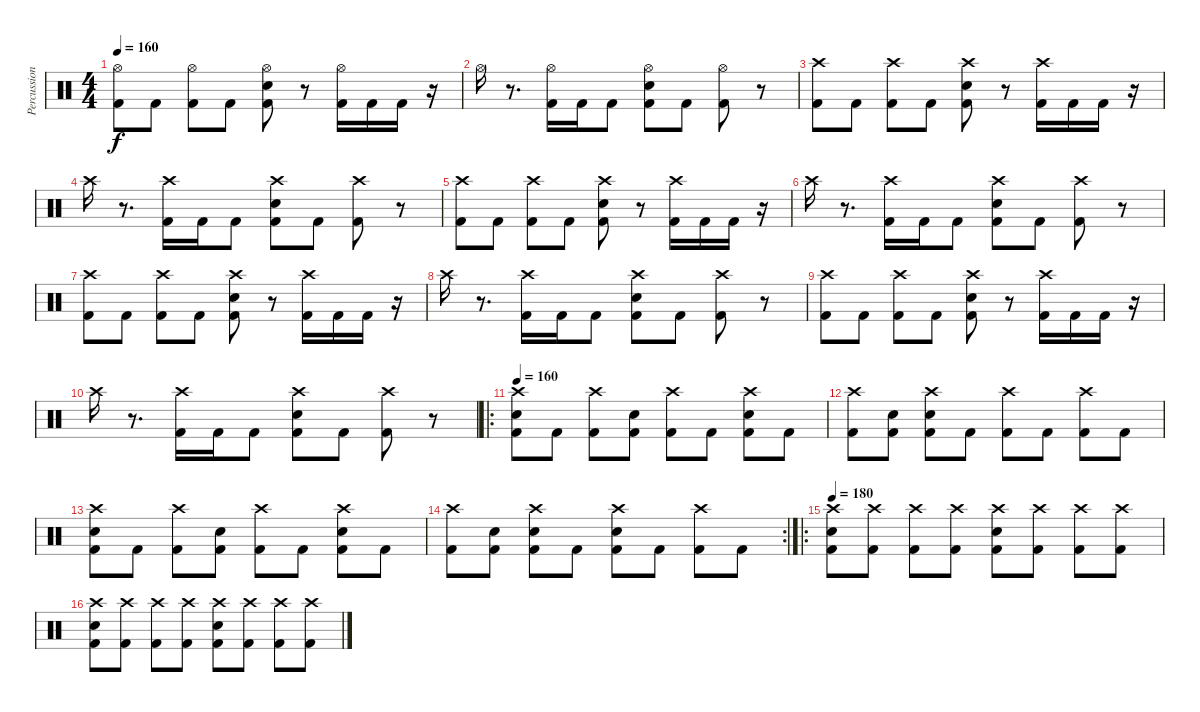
\track ("Percussion" "Percussion") {instrument percussion}
\staff {score}
\articulation defaults
\ts (4 4)
\tempo 160
\clef neutral
\ks c
("Hi-Hat (open)" "Kick (hit) 2").8{dy f} "Kick (hit) 2".8 ("Hi-Hat (open)" "Kick (hit) 2").8 "Kick (hit) 2".8 ("Hi-Hat (open)" "Snare (hit) 2" "Kick (hit) 2").8 r.8 ("Hi-Hat (open)" "Kick (hit) 2").16 "Kick (hit) 2".16 "Kick (hit) 2".16 r.16 |
"Hi-Hat (open)".16 r.8{d} ("Hi-Hat (open)" "Kick (hit) 2").16 "Kick (hit) 2".16 "Kick (hit) 2".8 ("Hi-Hat (open)" "Snare (hit) 2" "Kick (hit) 2").8 "Kick (hit) 2".8 ("Hi-Hat (open)" "Kick (hit) 2").8 r.8 |
("Crash high (hit)" "Kick (hit) 2").8 "Kick (hit) 2".8 ("Crash high (hit)" "Kick (hit) 2").8 "Kick (hit) 2".8 ("Crash high (hit)" "Snare (hit) 2" "Kick (hit) 2").8 r.8 ("Crash high (hit)" "Kick (hit) 2").16 "Kick (hit) 2".16 "Kick (hit) 2".16 r.16 |
"Crash high (hit)".16 r.8{d} ("Crash high (hit)" "Kick (hit) 2").16 "Kick (hit) 2".16 "Kick (hit) 2".8 ("Crash high (hit)" "Snare (hit) 2" "Kick (hit) 2").8 "Kick (hit) 2".8 ("Crash high (hit)" "Kick (hit) 2").8 r.8 |
("Crash high (hit)" "Kick (hit) 2").8 "Kick (hit) 2".8 ("Crash high (hit)" "Kick (hit) 2").8 "Kick (hit) 2".8 ("Crash high (hit)" "Snare (hit) 2" "Kick (hit) 2").8 r.8 ("Crash high (hit)" "Kick (hit) 2").16 "Kick (hit) 2".16 "Kick (hit) 2".16 r.16 |
"Crash high (hit)".16 r.8{d} ("Crash high (hit)" "Kick (hit) 2").16 "Kick (hit) 2".16 "Kick (hit) 2".8 ("Crash high (hit)" "Snare (hit) 2" "Kick (hit) 2").8 "Kick (hit) 2".8 ("Crash high (hit)" "Kick (hit) 2").8 r.8 |
("Crash high (hit)" "Kick (hit) 2").8 "Kick (hit) 2".8 ("Crash high (hit)" "Kick (hit) 2").8 "Kick (hit) 2".8 ("Crash high (hit)" "Snare (hit) 2" "Kick (hit) 2").8 r.8 ("Crash high (hit)" "Kick (hit) 2").16 "Kick (hit) 2".16 "Kick (hit) 2".16 r.16 |
"Crash high (hit)".16 r.8{d} ("Crash high (hit)" "Kick (hit) 2").16 "Kick (hit) 2".16 "Kick (hit) 2".8 ("Crash high (hit)" "Snare (hit) 2" "Kick (hit) 2").8 "Kick (hit) 2".8 ("Crash high (hit)" "Kick (hit) 2").8 r.8 |
("Crash high (hit)" "Kick (hit) 2").8 "Kick (hit) 2".8 ("Crash high (hit)" "Kick (hit) 2").8 "Kick (hit) 2".8 ("Crash high (hit)" "Snare (hit) 2" "Kick (hit) 2").8 r.8 ("Crash high (hit)" "Kick (hit) 2").16 "Kick (hit) 2".16 "Kick (hit) 2".16 r.16 |
"Crash high (hit)".16 r.8{d} ("Crash high (hit)" "Kick (hit) 2").16 "Kick (hit) 2".16 "Kick (hit) 2".8 ("Crash high (hit)" "Snare (hit) 2" "Kick (hit) 2").8 "Kick (hit) 2".8 ("Crash high (hit)" "Kick (hit) 2").8 r.8 |
\ro
\tempo 160
("Crash high (hit)" "Snare (hit) 2" "Kick (hit) 2").8 "Kick (hit) 2".8 ("Crash high (hit)" "Kick (hit) 2").8 ("Snare (hit) 2" "Kick (hit) 2").8 ("Crash high (hit)" "Kick (hit) 2").8 "Kick (hit) 2".8 ("Crash high (hit)" "Snare (hit) 2" "Kick (hit) 2").8 "Kick (hit) 2".8 |
("Crash high (hit)" "Kick (hit) 2").8 ("Snare (hit) 2" "Kick (hit) 2").8 ("Crash high (hit)" "Snare (hit) 2" "Kick (hit) 2").8 "Kick (hit) 2".8 ("Crash high (hit)" "Kick (hit) 2").8 "Kick (hit) 2".8 ("Crash high (hit)" "Kick (hit) 2").8 "Kick (hit) 2".8 |
("Crash high (hit)" "Snare (hit) 2" "Kick (hit) 2").8 "Kick (hit) 2".8 ("Crash high (hit)" "Kick (hit) 2").8 ("Snare (hit) 2" "Kick (hit) 2").8 ("Crash high (hit)" "Kick (hit) 2").8 "Kick (hit) 2".8 ("Crash high (hit)" "Snare (hit) 2" "Kick (hit) 2").8 "Kick (hit) 2".8 |
\rc 2
("Crash high (hit)" "Kick (hit) 2").8 ("Snare (hit) 2" "Kick (hit) 2").8 ("Crash high (hit)" "Snare (hit) 2" "Kick (hit) 2").8 "Kick (hit) 2".8 ("Crash high (hit)" "Snare (hit) 2" "Kick (hit) 2").8 "Kick (hit) 2".8 ("Crash high (hit)" "Kick (hit) 2").8 "Kick (hit) 2".8 |
\ro
\tempo 180
("Crash high (hit)" "Snare (hit) 2" "Kick (hit) 2").8 ("Crash high (hit)" "Kick (hit) 2").8 ("Crash high (hit)" "Kick (hit) 2").8 ("Crash high (hit)" "Kick (hit) 2").8 ("Crash high (hit)" "Snare (hit) 2" "Kick (hit) 2").8 ("Crash high (hit)" "Kick (hit) 2").8 ("Crash high (hit)" "Kick (hit) 2").8 ("Crash high (hit)" "Kick (hit) 2").8 |
("Crash high (hit)" "Snare (hit) 2" "Kick (hit) 2").8 ("Crash high (hit)" "Kick (hit) 2").8 ("Crash high (hit)" "Kick (hit) 2").8 ("Crash high (hit)" "Kick (hit) 2").8 ("Crash high (hit)" "Snare (hit) 2" "Kick (hit) 2").8 ("Crash high (hit)" "Kick (hit) 2").8 ("Crash high (hit)" "Kick (hit) 2").8 ("Crash high (hit)" "Kick (hit) 2").8
